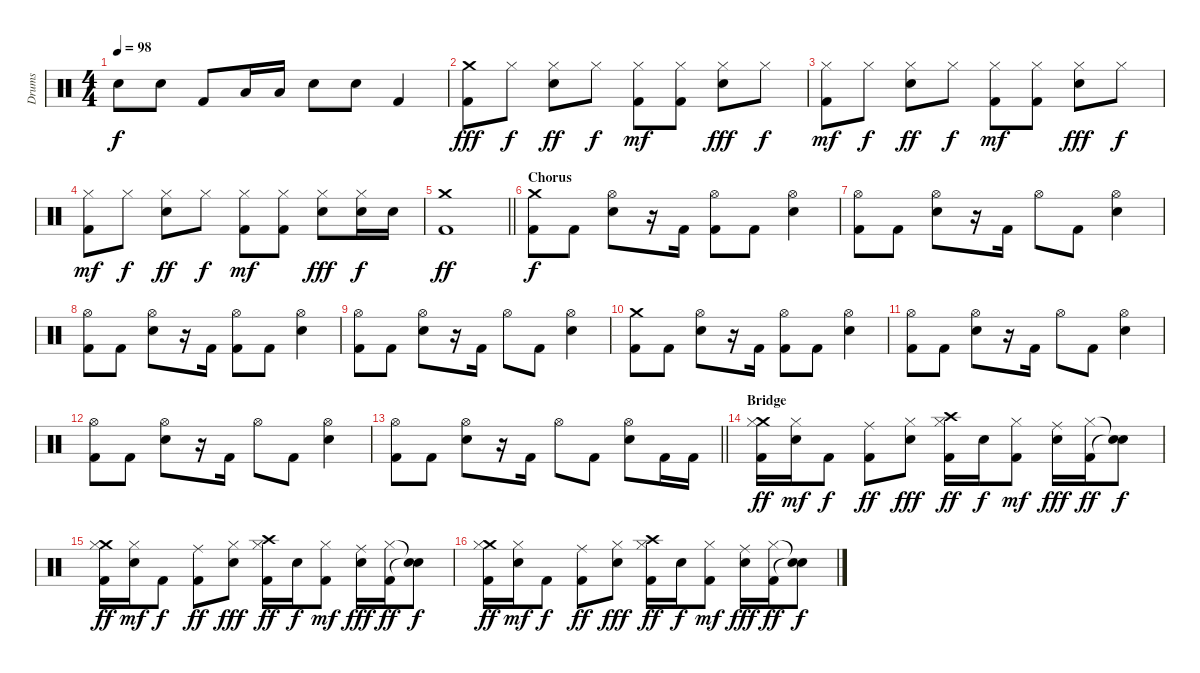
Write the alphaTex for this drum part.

\track ("Drums" "Drums") {instrument percussion}
\staff {score}
\articulation defaults
\ts (4 4)
\tempo 98
\clef neutral
\ks c "Electric Snare (hit)".8{dy f} "Electric Snare (hit)".8 "Kick (hit) 2".8 "Low Floor Tom (hit)".16 "Low Floor Tom (hit)".16 "Electric Snare (hit)".8 "Electric Snare (hit)".8 "Kick (hit) 2".4
|
("Crash medium (hit)" "Kick (hit) 2").8{dy fff} "Hi-Hat (closed)".8{dy f} ("Hi-Hat (closed)" "Electric Snare (hit)").8{dy ff} "Hi-Hat (closed)".8{dy f} ("Hi-Hat (closed)" "Kick (hit) 2").8{dy mf} ("Hi-Hat (closed)" "Kick (hit) 2").8 ("Hi-Hat (closed)" "Electric Snare (hit)").8{dy fff} "Hi-Hat (closed)".8{dy f} |
("Hi-Hat (closed)" "Kick (hit) 2").8{dy mf} "Hi-Hat (closed)".8{dy f} ("Hi-Hat (closed)" "Electric Snare (hit)").8{dy ff} "Hi-Hat (closed)".8{dy f} ("Hi-Hat (closed)" "Kick (hit) 2").8{dy mf} ("Hi-Hat (closed)" "Kick (hit) 2").8 ("Hi-Hat (closed)" "Electric Snare (hit)").8{dy fff} "Hi-Hat (closed)".8{dy f} |
("Hi-Hat (closed)" "Kick (hit) 2").8{dy mf} "Hi-Hat (closed)".8{dy f} ("Hi-Hat (closed)" "Electric Snare (hit)").8{dy ff} "Hi-Hat (closed)".8{dy f} ("Hi-Hat (closed)" "Kick (hit) 2").8{dy mf} ("Hi-Hat (closed)" "Kick (hit) 2").8 ("Hi-Hat (closed)" "Electric Snare (hit)").8{dy fff} ("Hi-Hat (closed)" "Electric Snare (hit)").16{dy f} "Electric Snare (hit)".16 |
\barLineRight lightlight
("Crash medium (hit)" "Kick (hit) 2").1{dy ff} |
\section ("" "Chorus")
("Crash medium (hit)" "Kick (hit) 2").8{dy f} "Kick (hit) 2".8 ("Hi-Hat (open)" "Electric Snare (hit)").8 r.16 "Kick (hit) 2".16 ("Hi-Hat (open)" "Kick (hit) 2").8 "Kick (hit) 2".8 ("Hi-Hat (open)" "Electric Snare (hit)").4 |
("Hi-Hat (open)" "Kick (hit) 2").8 "Kick (hit) 2".8 ("Hi-Hat (open)" "Electric Snare (hit)").8 r.16 "Kick (hit) 2".16 "Hi-Hat (open)".8 "Kick (hit) 2".8 ("Hi-Hat (open)" "Electric Snare (hit)").4 |
("Hi-Hat (open)" "Kick (hit) 2").8 "Kick (hit) 2".8 ("Hi-Hat (open)" "Electric Snare (hit)").8 r.16 "Kick (hit) 2".16 ("Hi-Hat (open)" "Kick (hit) 2").8 "Kick (hit) 2".8 ("Hi-Hat (open)" "Electric Snare (hit)").4 |
("Hi-Hat (open)" "Kick (hit) 2").8 "Kick (hit) 2".8 ("Hi-Hat (open)" "Electric Snare (hit)").8 r.16 "Kick (hit) 2".16 "Hi-Hat (open)".8 "Kick (hit) 2".8 ("Hi-Hat (open)" "Electric Snare (hit)").4 |
("Crash medium (hit)" "Kick (hit) 2").8 "Kick (hit) 2".8 ("Hi-Hat (open)" "Electric Snare (hit)").8 r.16 "Kick (hit) 2".16 ("Hi-Hat (open)" "Kick (hit) 2").8 "Kick (hit) 2".8 ("Hi-Hat (open)" "Electric Snare (hit)").4 |
("Hi-Hat (open)" "Kick (hit) 2").8 "Kick (hit) 2".8 ("Hi-Hat (open)" "Electric Snare (hit)").8 r.16 "Kick (hit) 2".16 "Hi-Hat (open)".8 "Kick (hit) 2".8 ("Hi-Hat (open)" "Electric Snare (hit)").4 |
("Hi-Hat (open)" "Kick (hit) 2").8 "Kick (hit) 2".8 ("Hi-Hat (open)" "Electric Snare (hit)").8 r.16 "Kick (hit) 2".16 "Hi-Hat (open)".8 "Kick (hit) 2".8 ("Hi-Hat (open)" "Electric Snare (hit)").4 |
\barLineRight lightlight
("Hi-Hat (open)" "Kick (hit) 2").8 "Kick (hit) 2".8 ("Hi-Hat (open)" "Electric Snare (hit)").8 r.16 "Kick (hit) 2".16 "Hi-Hat (open)".8 "Kick (hit) 2".8 ("Hi-Hat (open)" "Electric Snare (hit)").8 "Kick (hit) 2".16 "Kick (hit) 2".16 |
\section ("" "Bridge")
("Crash medium (hit)" "Hi-Hat (closed)" "Kick (hit) 2").16{dy ff} ("Hi-Hat (closed)" "Electric Snare (hit)").16{dy mf} "Kick (hit) 2".8{dy f} ("Ride (middle)" "Kick (hit) 2").8{dy ff} ("Hi-Hat (closed)" "Electric Snare (hit)").8{dy fff} ("Crash high (hit)" "Hi-Hat (closed)" "Kick (hit) 2").16{dy ff} "Electric Snare (hit)".16{dy f} ("Hi-Hat (closed)" "Kick (hit) 2").8{dy mf} ("Ride (middle)" "Electric Snare (hit)").16{dy fff} ("Hi-Hat (closed)" "Kick (hit) 2").16{dy ff} ("Snare (hit)"{t} "Snare (hit)"{t}).8{dy f} |
("Crash medium (hit)" "Hi-Hat (closed)" "Kick (hit) 2").16{dy ff} ("Hi-Hat (closed)" "Electric Snare (hit)").16{dy mf} "Kick (hit) 2".8{dy f} ("Ride (middle)" "Kick (hit) 2").8{dy ff} ("Hi-Hat (closed)" "Electric Snare (hit)").8{dy fff} ("Crash high (hit)" "Hi-Hat (closed)" "Kick (hit) 2").16{dy ff} "Electric Snare (hit)".16{dy f} ("Hi-Hat (closed)" "Kick (hit) 2").8{dy mf} ("Ride (middle)" "Electric Snare (hit)").16{dy fff} ("Hi-Hat (closed)" "Kick (hit) 2").16{dy ff} ("Snare (hit)"{t} "Snare (hit)"{t}).8{dy f} |
("Crash medium (hit)" "Hi-Hat (closed)" "Kick (hit) 2").16{dy ff} ("Hi-Hat (closed)" "Electric Snare (hit)").16{dy mf} "Kick (hit) 2".8{dy f} ("Ride (middle)" "Kick (hit) 2").8{dy ff} ("Hi-Hat (closed)" "Electric Snare (hit)").8{dy fff} ("Crash high (hit)" "Hi-Hat (closed)" "Kick (hit) 2").16{dy ff} "Electric Snare (hit)".16{dy f} ("Hi-Hat (closed)" "Kick (hit) 2").8{dy mf} ("Ride (middle)" "Electric Snare (hit)").16{dy fff} ("Hi-Hat (closed)" "Kick (hit) 2").16{dy ff} ("Snare (hit)"{t} "Snare (hit)"{t}).8{dy f}
